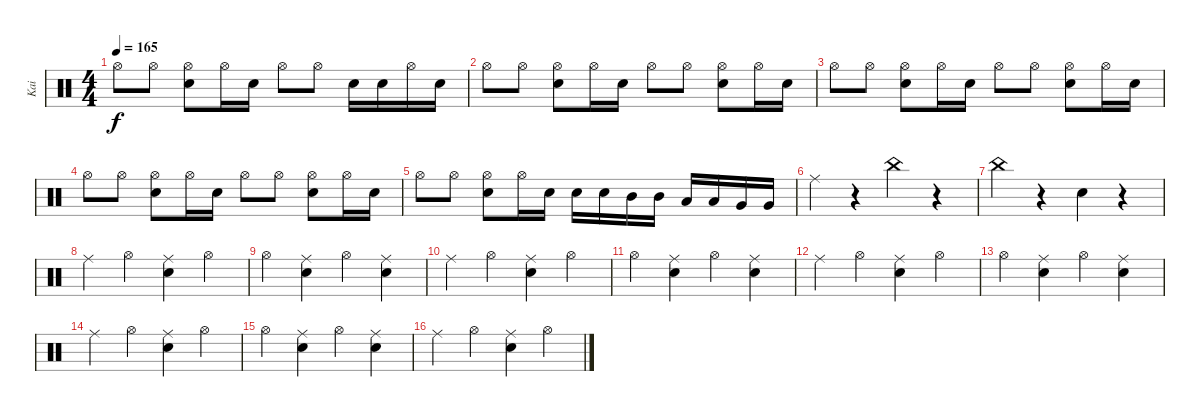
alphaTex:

\track ("Kai" "Kai") {instrument percussion}
\staff {score}
\articulation defaults
\ts (4 4)
\tempo 165
\clef neutral
\ks c "Hi-Hat (open)".8{dy f} "Hi-Hat (open)".8
("Hi-Hat (open)" "Snare (hit) 2").8 "Hi-Hat (open)".16 "Snare (hit) 2".16 "Hi-Hat (open)".8 "Hi-Hat (open)".8 "Snare (hit) 2".16 "Snare (hit) 2".16 "Hi-Hat (open)".16 "Snare (hit) 2".16 |
"Hi-Hat (open)".8 "Hi-Hat (open)".8 ("Hi-Hat (open)" "Snare (hit) 2").8 "Hi-Hat (open)".16 "Snare (hit) 2".16 "Hi-Hat (open)".8 "Hi-Hat (open)".8 ("Hi-Hat (open)" "Snare (hit) 2").8 "Hi-Hat (open)".16 "Snare (hit) 2".16 |
"Hi-Hat (open)".8 "Hi-Hat (open)".8 ("Hi-Hat (open)" "Snare (hit) 2").8 "Hi-Hat (open)".16 "Snare (hit) 2".16 "Hi-Hat (open)".8 "Hi-Hat (open)".8 ("Hi-Hat (open)" "Snare (hit) 2").8 "Hi-Hat (open)".16 "Snare (hit) 2".16 |
"Hi-Hat (open)".8 "Hi-Hat (open)".8 ("Hi-Hat (open)" "Snare (hit) 2").8 "Hi-Hat (open)".16 "Snare (hit) 2".16 "Hi-Hat (open)".8 "Hi-Hat (open)".8 ("Hi-Hat (open)" "Snare (hit) 2").8 "Hi-Hat (open)".16 "Snare (hit) 2".16 |
"Hi-Hat (open)".8 "Hi-Hat (open)".8 ("Hi-Hat (open)" "Snare (hit) 2").8 "Hi-Hat (open)".16 "Snare (hit) 2".16 "Snare (hit) 2".16 "Snare (hit) 2".16 "Mid Tom (hit)".16 "Mid Tom (hit)".16 "Low Tom (hit)".16 "Low Tom (hit)".16 "Very Low Tom (hit)".16 "Very Low Tom (hit)".16 |
"Ride (middle)".4 r.4 "China (hit)".4 r.4 |
"China (hit)".4 r.4 "Snare (hit) 2".4 r.4 |
"Ride (middle)".4 "Hi-Hat (open)".4 ("Ride (middle)" "Snare (hit) 2").4 "Hi-Hat (open)".4 |
"Hi-Hat (open)".4 ("Ride (middle)" "Snare (hit) 2").4 "Hi-Hat (open)".4 ("Ride (middle)" "Snare (hit) 2").4 |
"Ride (middle)".4 "Hi-Hat (open)".4 ("Ride (middle)" "Snare (hit) 2").4 "Hi-Hat (open)".4 |
"Hi-Hat (open)".4 ("Ride (middle)" "Snare (hit) 2").4 "Hi-Hat (open)".4 ("Ride (middle)" "Snare (hit) 2").4 |
"Ride (middle)".4 "Hi-Hat (open)".4 ("Ride (middle)" "Snare (hit) 2").4 "Hi-Hat (open)".4 |
"Hi-Hat (open)".4 ("Ride (middle)" "Snare (hit) 2").4 "Hi-Hat (open)".4 ("Ride (middle)" "Snare (hit) 2").4 |
"Ride (middle)".4 "Hi-Hat (open)".4 ("Ride (middle)" "Snare (hit) 2").4 "Hi-Hat (open)".4 |
"Hi-Hat (open)".4 ("Ride (middle)" "Snare (hit) 2").4 "Hi-Hat (open)".4 ("Ride (middle)" "Snare (hit) 2").4 |
"Ride (middle)".4 "Hi-Hat (open)".4 ("Ride (middle)" "Snare (hit) 2").4 "Hi-Hat (open)".4
